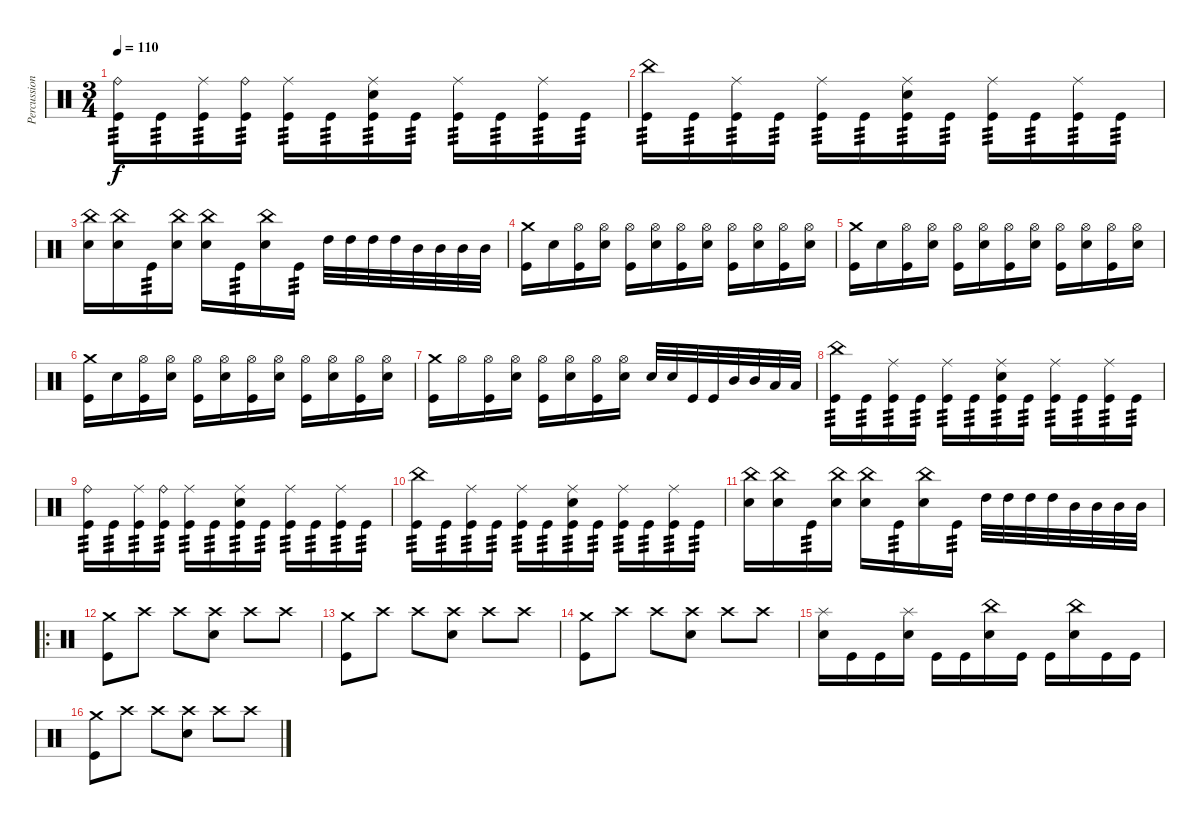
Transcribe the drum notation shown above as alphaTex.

\track ("Percussion" "Percussion") {instrument percussion}
\staff {score}
\articulation defaults
\ts (3 4)
\tempo 110
\clef neutral
\ks c
("Ride (bell)" "Kick (hit)").16{tp 3 dy f} "Kick (hit)".16{tp 3} ("Ride (middle)" "Kick (hit)").16{tp 3} ("Ride (bell)" "Kick (hit)").16{tp 3} ("Ride (middle)" "Kick (hit)").16{tp 3} "Kick (hit)".16{tp 3} ("Ride (middle)" "Electric Snare (hit)" "Kick (hit)").16{tp 3} "Kick (hit)".16{tp 3} ("Ride (middle)" "Kick (hit)").16{tp 3} "Kick (hit)".16{tp 3} ("Ride (middle)" "Kick (hit)").16{tp 3} "Kick (hit)".16{tp 3} |
("China (hit)" "Kick (hit)").16{tp 3} "Kick (hit)".16{tp 3} ("Ride (middle)" "Kick (hit)").16{tp 3} "Kick (hit)".16{tp 3} ("Ride (middle)" "Kick (hit)").16{tp 3} "Kick (hit)".16{tp 3} ("Ride (middle)" "Electric Snare (hit)" "Kick (hit)").16{tp 3} "Kick (hit)".16{tp 3} ("Ride (middle)" "Kick (hit)").16{tp 3} "Kick (hit)".16{tp 3} ("Ride (middle)" "Kick (hit)").16{tp 3} "Kick (hit)".16{tp 3} |
("China (hit)" "Electric Snare (hit)").16 ("China (hit)" "Electric Snare (hit)").16 "Kick (hit)".16{tp 3} ("China (hit)" "Electric Snare (hit)").16 ("China (hit)" "Electric Snare (hit)").16 "Kick (hit)".16{tp 3} ("China (hit)" "Electric Snare (hit)").16 "Kick (hit)".16{tp 3} "High Tom (hit)".32 "High Tom (hit)".32 "High Tom (hit)".32 "High Tom (hit)".32 "Mid Tom (hit)".32 "Mid Tom (hit)".32 "Mid Tom (hit)".32 "Mid Tom (hit)".32 |
("Crash medium (hit)" "Kick (hit)").16 "Electric Snare (hit)".16 ("Hi-Hat (open)" "Kick (hit)").16 ("Hi-Hat (open)" "Electric Snare (hit)").16 ("Hi-Hat (open)" "Kick (hit)").16 ("Hi-Hat (open)" "Electric Snare (hit)").16 ("Hi-Hat (open)" "Kick (hit)").16 ("Hi-Hat (open)" "Electric Snare (hit)").16 ("Hi-Hat (open)" "Kick (hit)").16 ("Hi-Hat (open)" "Electric Snare (hit)").16 ("Hi-Hat (open)" "Kick (hit)").16 ("Hi-Hat (open)" "Electric Snare (hit)").16 |
("Crash medium (hit)" "Kick (hit)").16 "Electric Snare (hit)".16 ("Hi-Hat (open)" "Kick (hit)").16 ("Hi-Hat (open)" "Electric Snare (hit)").16 ("Hi-Hat (open)" "Kick (hit)").16 ("Hi-Hat (open)" "Electric Snare (hit)").16 ("Hi-Hat (open)" "Kick (hit)").16 ("Hi-Hat (open)" "Electric Snare (hit)").16 ("Hi-Hat (open)" "Kick (hit)").16 ("Hi-Hat (open)" "Electric Snare (hit)").16 ("Hi-Hat (open)" "Kick (hit)").16 ("Hi-Hat (open)" "Electric Snare (hit)").16 |
("Crash medium (hit)" "Kick (hit)").16 "Electric Snare (hit)".16 ("Hi-Hat (open)" "Kick (hit)").16 ("Hi-Hat (open)" "Electric Snare (hit)").16 ("Hi-Hat (open)" "Kick (hit)").16 ("Hi-Hat (open)" "Electric Snare (hit)").16 ("Hi-Hat (open)" "Kick (hit)").16 ("Hi-Hat (open)" "Electric Snare (hit)").16 ("Hi-Hat (open)" "Kick (hit)").16 ("Hi-Hat (open)" "Electric Snare (hit)").16 ("Hi-Hat (open)" "Kick (hit)").16 ("Hi-Hat (open)" "Electric Snare (hit)").16 |
("Crash medium (hit)" "Kick (hit)").16 "Hi-Hat (open)".16 ("Hi-Hat (open)" "Kick (hit)").16 ("Hi-Hat (open)" "Electric Snare (hit)").16 ("Hi-Hat (open)" "Kick (hit)").16 ("Hi-Hat (open)" "Electric Snare (hit)").16 ("Hi-Hat (open)" "Kick (hit)").16 ("Hi-Hat (open)" "Electric Snare (hit)").16 "Electric Snare (hit)".32 "Electric Snare (hit)".32 "Kick (hit)".32 "Kick (hit)".32 "Mid Tom (hit)".32 "Mid Tom (hit)".32 "Low Tom (hit)".32 "Low Tom (hit)".32 |
("China (hit)" "Kick (hit)").16{tp 3} "Kick (hit)".16{tp 3} ("Ride (middle)" "Kick (hit)").16{tp 3} "Kick (hit)".16{tp 3} ("Ride (middle)" "Kick (hit)").16{tp 3} "Kick (hit)".16{tp 3} ("Ride (middle)" "Electric Snare (hit)" "Kick (hit)").16{tp 3} "Kick (hit)".16{tp 3} ("Ride (middle)" "Kick (hit)").16{tp 3} "Kick (hit)".16{tp 3} ("Ride (middle)" "Kick (hit)").16{tp 3} "Kick (hit)".16{tp 3} |
("Ride (bell)" "Kick (hit)").16{tp 3} "Kick (hit)".16{tp 3} ("Ride (middle)" "Kick (hit)").16{tp 3} ("Ride (bell)" "Kick (hit)").16{tp 3} ("Ride (middle)" "Kick (hit)").16{tp 3} "Kick (hit)".16{tp 3} ("Ride (middle)" "Electric Snare (hit)" "Kick (hit)").16{tp 3} "Kick (hit)".16{tp 3} ("Ride (middle)" "Kick (hit)").16{tp 3} "Kick (hit)".16{tp 3} ("Ride (middle)" "Kick (hit)").16{tp 3} "Kick (hit)".16{tp 3} |
("China (hit)" "Kick (hit)").16{tp 3} "Kick (hit)".16{tp 3} ("Ride (middle)" "Kick (hit)").16{tp 3} "Kick (hit)".16{tp 3} ("Ride (middle)" "Kick (hit)").16{tp 3} "Kick (hit)".16{tp 3} ("Ride (middle)" "Electric Snare (hit)" "Kick (hit)").16{tp 3} "Kick (hit)".16{tp 3} ("Ride (middle)" "Kick (hit)").16{tp 3} "Kick (hit)".16{tp 3} ("Ride (middle)" "Kick (hit)").16{tp 3} "Kick (hit)".16{tp 3} |
("China (hit)" "Electric Snare (hit)").16 ("China (hit)" "Electric Snare (hit)").16 "Kick (hit)".16{tp 3} ("China (hit)" "Electric Snare (hit)").16 ("China (hit)" "Electric Snare (hit)").16 "Kick (hit)".16{tp 3} ("China (hit)" "Electric Snare (hit)").16 "Kick (hit)".16{tp 3} "High Tom (hit)".32 "High Tom (hit)".32 "High Tom (hit)".32 "High Tom (hit)".32 "Mid Tom (hit)".32 "Mid Tom (hit)".32 "Mid Tom (hit)".32 "Mid Tom (hit)".32 |
\ro
("Crash medium (hit)" "Kick (hit)").8 "Crash high (hit)".8 "Crash high (hit)".8 ("Crash high (hit)" "Electric Snare (hit)").8 "Crash high (hit)".8 "Crash high (hit)".8 |
("Crash medium (hit)" "Kick (hit)").8 "Crash high (hit)".8 "Crash high (hit)".8 ("Crash high (hit)" "Electric Snare (hit)").8 "Crash high (hit)".8 "Crash high (hit)".8 |
("Crash medium (hit)" "Kick (hit)").8 "Crash high (hit)".8 "Crash high (hit)".8 ("Crash high (hit)" "Electric Snare (hit)").8 "Crash high (hit)".8 "Crash high (hit)".8 |
("Splash (hit)" "Electric Snare (hit)").16 "Kick (hit)".16 "Kick (hit)".16 ("Splash (hit)" "Electric Snare (hit)").16 "Kick (hit)".16 "Kick (hit)".16 ("China (hit)" "Electric Snare (hit)").16 "Kick (hit)".16 "Kick (hit)".16 ("China (hit)" "Electric Snare (hit)").16 "Kick (hit)".16 "Kick (hit)".16 |
("Crash medium (hit)" "Kick (hit)").8 "Crash high (hit)".8 "Crash high (hit)".8 ("Crash high (hit)" "Electric Snare (hit)").8 "Crash high (hit)".8 "Crash high (hit)".8
